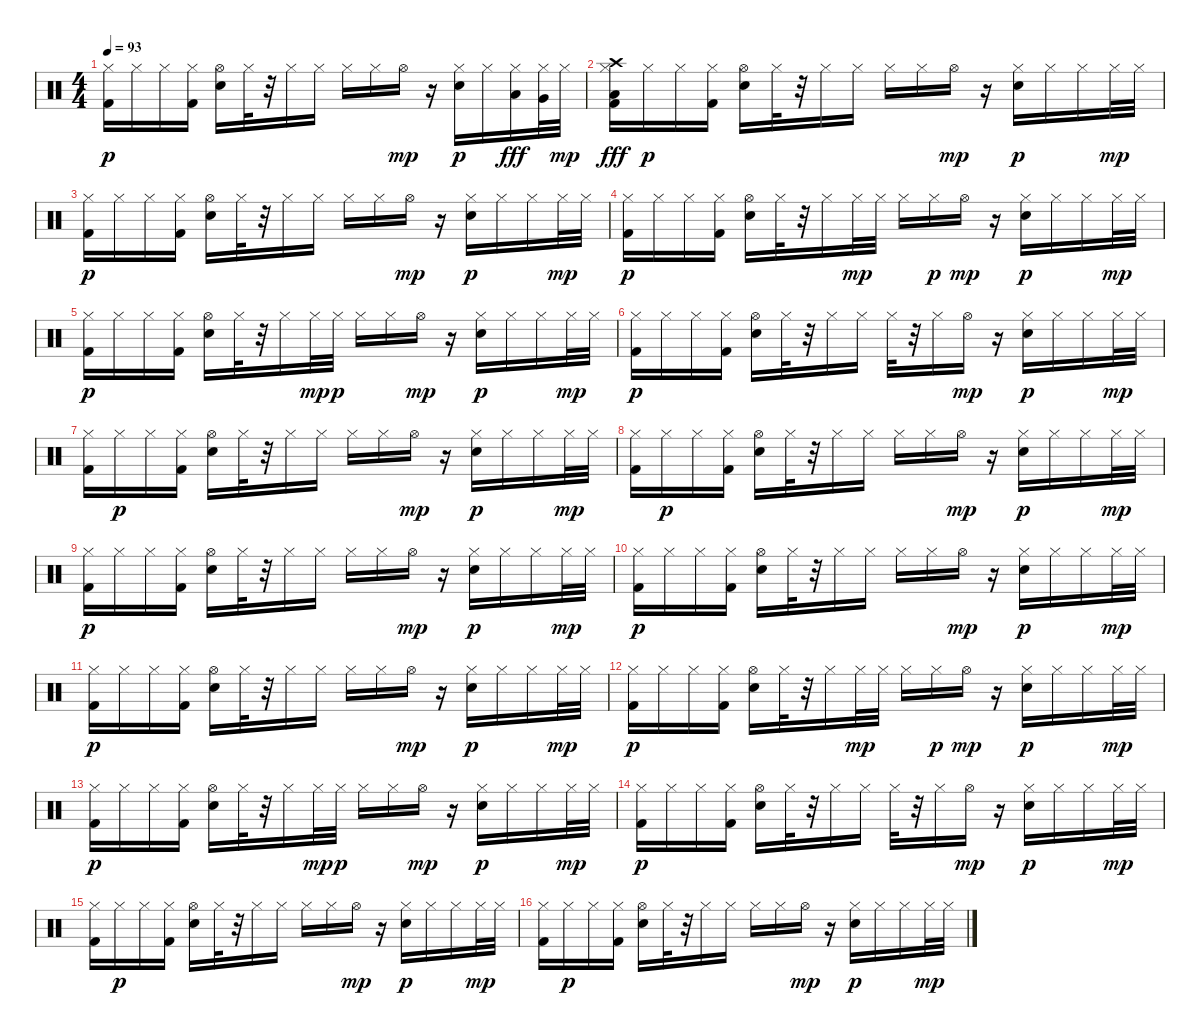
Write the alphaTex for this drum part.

\track "" {instrument percussion}
\staff {score}
\articulation defaults
\ts (4 4)
\tempo 93
\clef neutral
\ks c
("Hi-Hat (closed)" "Kick (hit) 2").16{dy p} "Hi-Hat (closed)".16 "Hi-Hat (closed)".16 ("Hi-Hat (closed)" "Kick (hit) 2").16 ("Hi-Hat (open)" "Snare (hit) 2").16 "Hi-Hat (closed)".32 r.32 "Hi-Hat (closed)".16 "Hi-Hat (closed)".16 "Hi-Hat (closed)".16 "Hi-Hat (closed)".16 "Hi-Hat (open)".16{dy mp} r.16 ("Hi-Hat (closed)" "Snare (hit) 2").16{dy p} "Hi-Hat (closed)".16 ("Hi-Hat (closed)" "Low Tom (hit)").16{dy fff} ("Hi-Hat (closed)" "Very Low Tom (hit)").32 "Hi-Hat (closed)".32{dy mp} |
("Hi-Hat (closed)" "Kick (hit) 2" "Low Floor Tom (hit)" "Crash high (hit)").16{dy fff} "Hi-Hat (closed)".16{dy p} "Hi-Hat (closed)".16 ("Hi-Hat (closed)" "Kick (hit) 2").16 ("Hi-Hat (open)" "Snare (hit) 2").16 "Hi-Hat (closed)".32 r.32 "Hi-Hat (closed)".16 "Hi-Hat (closed)".16 "Hi-Hat (closed)".16 "Hi-Hat (closed)".16 "Hi-Hat (open)".16{dy mp} r.16 ("Hi-Hat (closed)" "Snare (hit) 2").16{dy p} "Hi-Hat (closed)".16 "Hi-Hat (closed)".16 "Hi-Hat (closed)".32{dy mp} "Hi-Hat (closed)".32 |
("Hi-Hat (closed)" "Kick (hit) 2").16{dy p} "Hi-Hat (closed)".16 "Hi-Hat (closed)".16 ("Hi-Hat (closed)" "Kick (hit) 2").16 ("Hi-Hat (open)" "Snare (hit) 2").16 "Hi-Hat (closed)".32 r.32 "Hi-Hat (closed)".16 "Hi-Hat (closed)".16 "Hi-Hat (closed)".16 "Hi-Hat (closed)".16 "Hi-Hat (open)".16{dy mp} r.16 ("Hi-Hat (closed)" "Snare (hit) 2").16{dy p} "Hi-Hat (closed)".16 "Hi-Hat (closed)".16 "Hi-Hat (closed)".32{dy mp} "Hi-Hat (closed)".32 |
("Hi-Hat (closed)" "Kick (hit) 2").16{dy p} "Hi-Hat (closed)".16 "Hi-Hat (closed)".16 ("Hi-Hat (closed)" "Kick (hit) 2").16 ("Hi-Hat (open)" "Snare (hit) 2").16 "Hi-Hat (closed)".32 r.32 "Hi-Hat (closed)".16 "Hi-Hat (closed)".32{dy mp} "Hi-Hat (closed)".32 "Hi-Hat (closed)".16 "Hi-Hat (closed)".16{dy p} "Hi-Hat (open)".16{dy mp} r.16 ("Hi-Hat (closed)" "Snare (hit) 2").16{dy p} "Hi-Hat (closed)".16 "Hi-Hat (closed)".16 "Hi-Hat (closed)".32{dy mp} "Hi-Hat (closed)".32 |
("Hi-Hat (closed)" "Kick (hit) 2").16{dy p} "Hi-Hat (closed)".16 "Hi-Hat (closed)".16 ("Hi-Hat (closed)" "Kick (hit) 2").16 ("Hi-Hat (open)" "Snare (hit) 2").16 "Hi-Hat (closed)".32 r.32 "Hi-Hat (closed)".16 "Hi-Hat (closed)".32{dy mp} "Hi-Hat (closed)".32{dy p} "Hi-Hat (closed)".16 "Hi-Hat (closed)".16 "Hi-Hat (open)".16{dy mp} r.16 ("Hi-Hat (closed)" "Snare (hit) 2").16{dy p} "Hi-Hat (closed)".16 "Hi-Hat (closed)".16 "Hi-Hat (closed)".32{dy mp} "Hi-Hat (closed)".32 |
("Hi-Hat (closed)" "Kick (hit) 2").16{dy p} "Hi-Hat (closed)".16 "Hi-Hat (closed)".16 ("Hi-Hat (closed)" "Kick (hit) 2").16 ("Hi-Hat (open)" "Snare (hit) 2").16 "Hi-Hat (closed)".32 r.32 "Hi-Hat (closed)".16 "Hi-Hat (closed)".16 "Hi-Hat (closed)".32 r.32 "Hi-Hat (closed)".16 "Hi-Hat (open)".16{dy mp} r.16 ("Hi-Hat (closed)" "Snare (hit) 2").16{dy p} "Hi-Hat (closed)".16 "Hi-Hat (closed)".16 "Hi-Hat (closed)".32{dy mp} "Hi-Hat (closed)".32 |
("Hi-Hat (closed)" "Kick (hit) 2").16 "Hi-Hat (closed)".16{dy p} "Hi-Hat (closed)".16 ("Hi-Hat (closed)" "Kick (hit) 2").16 ("Hi-Hat (open)" "Snare (hit) 2").16 "Hi-Hat (closed)".32 r.32 "Hi-Hat (closed)".16 "Hi-Hat (closed)".16 "Hi-Hat (closed)".16 "Hi-Hat (closed)".16 "Hi-Hat (open)".16{dy mp} r.16 ("Hi-Hat (closed)" "Snare (hit) 2").16{dy p} "Hi-Hat (closed)".16 "Hi-Hat (closed)".16 "Hi-Hat (closed)".32{dy mp} "Hi-Hat (closed)".32 |
("Hi-Hat (closed)" "Kick (hit) 2").16 "Hi-Hat (closed)".16{dy p} "Hi-Hat (closed)".16 ("Hi-Hat (closed)" "Kick (hit) 2").16 ("Hi-Hat (open)" "Snare (hit) 2").16 "Hi-Hat (closed)".32 r.32 "Hi-Hat (closed)".16 "Hi-Hat (closed)".16 "Hi-Hat (closed)".16 "Hi-Hat (closed)".16 "Hi-Hat (open)".16{dy mp} r.16 ("Hi-Hat (closed)" "Snare (hit) 2").16{dy p} "Hi-Hat (closed)".16 "Hi-Hat (closed)".16 "Hi-Hat (closed)".32{dy mp} "Hi-Hat (closed)".32 |
("Hi-Hat (closed)" "Kick (hit) 2").16{dy p} "Hi-Hat (closed)".16 "Hi-Hat (closed)".16 ("Hi-Hat (closed)" "Kick (hit) 2").16 ("Hi-Hat (open)" "Snare (hit) 2").16 "Hi-Hat (closed)".32 r.32 "Hi-Hat (closed)".16 "Hi-Hat (closed)".16 "Hi-Hat (closed)".16 "Hi-Hat (closed)".16 "Hi-Hat (open)".16{dy mp} r.16 ("Hi-Hat (closed)" "Snare (hit) 2").16{dy p} "Hi-Hat (closed)".16 "Hi-Hat (closed)".16 "Hi-Hat (closed)".32{dy mp} "Hi-Hat (closed)".32 |
("Hi-Hat (closed)" "Kick (hit) 2").16{dy p} "Hi-Hat (closed)".16 "Hi-Hat (closed)".16 ("Hi-Hat (closed)" "Kick (hit) 2").16 ("Hi-Hat (open)" "Snare (hit) 2").16 "Hi-Hat (closed)".32 r.32 "Hi-Hat (closed)".16 "Hi-Hat (closed)".16 "Hi-Hat (closed)".16 "Hi-Hat (closed)".16 "Hi-Hat (open)".16{dy mp} r.16 ("Hi-Hat (closed)" "Snare (hit) 2").16{dy p} "Hi-Hat (closed)".16 "Hi-Hat (closed)".16 "Hi-Hat (closed)".32{dy mp} "Hi-Hat (closed)".32 |
("Hi-Hat (closed)" "Kick (hit) 2").16{dy p} "Hi-Hat (closed)".16 "Hi-Hat (closed)".16 ("Hi-Hat (closed)" "Kick (hit) 2").16 ("Hi-Hat (open)" "Snare (hit) 2").16 "Hi-Hat (closed)".32 r.32 "Hi-Hat (closed)".16 "Hi-Hat (closed)".16 "Hi-Hat (closed)".16 "Hi-Hat (closed)".16 "Hi-Hat (open)".16{dy mp} r.16 ("Hi-Hat (closed)" "Snare (hit) 2").16{dy p} "Hi-Hat (closed)".16 "Hi-Hat (closed)".16 "Hi-Hat (closed)".32{dy mp} "Hi-Hat (closed)".32 |
("Hi-Hat (closed)" "Kick (hit) 2").16{dy p} "Hi-Hat (closed)".16 "Hi-Hat (closed)".16 ("Hi-Hat (closed)" "Kick (hit) 2").16 ("Hi-Hat (open)" "Snare (hit) 2").16 "Hi-Hat (closed)".32 r.32 "Hi-Hat (closed)".16 "Hi-Hat (closed)".32{dy mp} "Hi-Hat (closed)".32 "Hi-Hat (closed)".16 "Hi-Hat (closed)".16{dy p} "Hi-Hat (open)".16{dy mp} r.16 ("Hi-Hat (closed)" "Snare (hit) 2").16{dy p} "Hi-Hat (closed)".16 "Hi-Hat (closed)".16 "Hi-Hat (closed)".32{dy mp} "Hi-Hat (closed)".32 |
("Hi-Hat (closed)" "Kick (hit) 2").16{dy p} "Hi-Hat (closed)".16 "Hi-Hat (closed)".16 ("Hi-Hat (closed)" "Kick (hit) 2").16 ("Hi-Hat (open)" "Snare (hit) 2").16 "Hi-Hat (closed)".32 r.32 "Hi-Hat (closed)".16 "Hi-Hat (closed)".32{dy mp} "Hi-Hat (closed)".32{dy p} "Hi-Hat (closed)".16 "Hi-Hat (closed)".16 "Hi-Hat (open)".16{dy mp} r.16 ("Hi-Hat (closed)" "Snare (hit) 2").16{dy p} "Hi-Hat (closed)".16 "Hi-Hat (closed)".16 "Hi-Hat (closed)".32{dy mp} "Hi-Hat (closed)".32 |
("Hi-Hat (closed)" "Kick (hit) 2").16{dy p} "Hi-Hat (closed)".16 "Hi-Hat (closed)".16 ("Hi-Hat (closed)" "Kick (hit) 2").16 ("Hi-Hat (open)" "Snare (hit) 2").16 "Hi-Hat (closed)".32 r.32 "Hi-Hat (closed)".16 "Hi-Hat (closed)".16 "Hi-Hat (closed)".32 r.32 "Hi-Hat (closed)".16 "Hi-Hat (open)".16{dy mp} r.16 ("Hi-Hat (closed)" "Snare (hit) 2").16{dy p} "Hi-Hat (closed)".16 "Hi-Hat (closed)".16 "Hi-Hat (closed)".32{dy mp} "Hi-Hat (closed)".32 |
("Hi-Hat (closed)" "Kick (hit) 2").16 "Hi-Hat (closed)".16{dy p} "Hi-Hat (closed)".16 ("Hi-Hat (closed)" "Kick (hit) 2").16 ("Hi-Hat (open)" "Snare (hit) 2").16 "Hi-Hat (closed)".32 r.32 "Hi-Hat (closed)".16 "Hi-Hat (closed)".16 "Hi-Hat (closed)".16 "Hi-Hat (closed)".16 "Hi-Hat (open)".16{dy mp} r.16 ("Hi-Hat (closed)" "Snare (hit) 2").16{dy p} "Hi-Hat (closed)".16 "Hi-Hat (closed)".16 "Hi-Hat (closed)".32{dy mp} "Hi-Hat (closed)".32 |
("Hi-Hat (closed)" "Kick (hit) 2").16 "Hi-Hat (closed)".16{dy p} "Hi-Hat (closed)".16 ("Hi-Hat (closed)" "Kick (hit) 2").16 ("Hi-Hat (open)" "Snare (hit) 2").16 "Hi-Hat (closed)".32 r.32 "Hi-Hat (closed)".16 "Hi-Hat (closed)".16 "Hi-Hat (closed)".16 "Hi-Hat (closed)".16 "Hi-Hat (open)".16{dy mp} r.16 ("Hi-Hat (closed)" "Snare (hit) 2").16{dy p} "Hi-Hat (closed)".16 "Hi-Hat (closed)".16 "Hi-Hat (closed)".32{dy mp} "Hi-Hat (closed)".32
